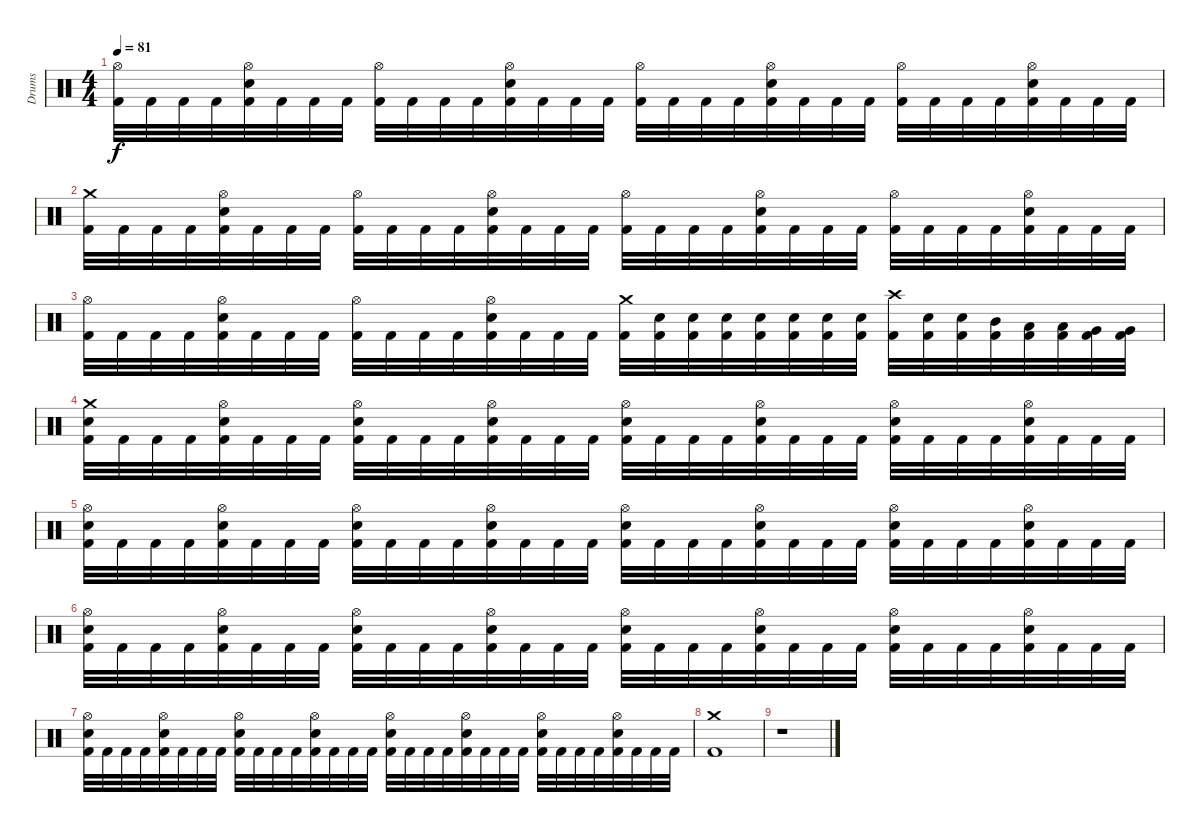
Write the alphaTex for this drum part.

\track ("Drums" "Drums") {instrument percussion}
\staff {score}
\articulation defaults
\ts (4 4)
\tempo 81
\clef neutral
\ks c
("Hi-Hat (open)" "Kick (hit) 2").32{dy f} "Kick (hit) 2".32 "Kick (hit) 2".32 "Kick (hit) 2".32 ("Hi-Hat (open)" "Electric Snare (hit)" "Kick (hit) 2").32 "Kick (hit) 2".32 "Kick (hit) 2".32 "Kick (hit) 2".32 ("Hi-Hat (open)" "Kick (hit) 2").32 "Kick (hit) 2".32 "Kick (hit) 2".32 "Kick (hit) 2".32 ("Hi-Hat (open)" "Electric Snare (hit)" "Kick (hit) 2").32 "Kick (hit) 2".32 "Kick (hit) 2".32 "Kick (hit) 2".32 ("Hi-Hat (open)" "Kick (hit) 2").32 "Kick (hit) 2".32 "Kick (hit) 2".32 "Kick (hit) 2".32 ("Hi-Hat (open)" "Electric Snare (hit)" "Kick (hit) 2").32 "Kick (hit) 2".32 "Kick (hit) 2".32 "Kick (hit) 2".32 ("Hi-Hat (open)" "Kick (hit) 2").32 "Kick (hit) 2".32 "Kick (hit) 2".32 "Kick (hit) 2".32 ("Hi-Hat (open)" "Electric Snare (hit)" "Kick (hit) 2").32 "Kick (hit) 2".32 "Kick (hit) 2".32 "Kick (hit) 2".32 |
("Crash medium (hit)" "Kick (hit) 2").32 "Kick (hit) 2".32 "Kick (hit) 2".32 "Kick (hit) 2".32 ("Hi-Hat (open)" "Electric Snare (hit)" "Kick (hit) 2").32 "Kick (hit) 2".32 "Kick (hit) 2".32 "Kick (hit) 2".32 ("Hi-Hat (open)" "Kick (hit) 2").32 "Kick (hit) 2".32 "Kick (hit) 2".32 "Kick (hit) 2".32 ("Hi-Hat (open)" "Electric Snare (hit)" "Kick (hit) 2").32 "Kick (hit) 2".32 "Kick (hit) 2".32 "Kick (hit) 2".32 ("Hi-Hat (open)" "Kick (hit) 2").32 "Kick (hit) 2".32 "Kick (hit) 2".32 "Kick (hit) 2".32 ("Hi-Hat (open)" "Electric Snare (hit)" "Kick (hit) 2").32 "Kick (hit) 2".32 "Kick (hit) 2".32 "Kick (hit) 2".32 ("Hi-Hat (open)" "Kick (hit) 2").32 "Kick (hit) 2".32 "Kick (hit) 2".32 "Kick (hit) 2".32 ("Hi-Hat (open)" "Electric Snare (hit)" "Kick (hit) 2").32 "Kick (hit) 2".32 "Kick (hit) 2".32 "Kick (hit) 2".32 |
("Hi-Hat (open)" "Kick (hit) 2").32 "Kick (hit) 2".32 "Kick (hit) 2".32 "Kick (hit) 2".32 ("Hi-Hat (open)" "Electric Snare (hit)" "Kick (hit) 2").32 "Kick (hit) 2".32 "Kick (hit) 2".32 "Kick (hit) 2".32 ("Hi-Hat (open)" "Kick (hit) 2").32 "Kick (hit) 2".32 "Kick (hit) 2".32 "Kick (hit) 2".32 ("Hi-Hat (open)" "Electric Snare (hit)" "Kick (hit) 2").32 "Kick (hit) 2".32 "Kick (hit) 2".32 "Kick (hit) 2".32 ("Crash medium (hit)" "Kick (hit) 2").32 ("Electric Snare (hit)" "Kick (hit) 2").32 ("Electric Snare (hit)" "Kick (hit) 2").32 ("Electric Snare (hit)" "Kick (hit) 2").32 ("Electric Snare (hit)" "Kick (hit) 2").32 ("Electric Snare (hit)" "Kick (hit) 2").32 ("Electric Snare (hit)" "Kick (hit) 2").32 ("Electric Snare (hit)" "Kick (hit) 2").32 ("Crash high (hit)" "Kick (hit) 2").32 ("Electric Snare (hit)" "Kick (hit) 2").32 ("Electric Snare (hit)" "Kick (hit) 2").32 ("Mid Tom (hit)" "Kick (hit) 2").32 ("Low Tom (hit)" "Kick (hit) 2").32 ("Low Tom (hit)" "Kick (hit) 2").32 ("Very Low Tom (hit)" "Kick (hit) 2").32 ("Very Low Tom (hit)" "Kick (hit) 2").32 |
("Crash medium (hit)" "Electric Snare (hit)" "Kick (hit) 2").32 "Kick (hit) 2".32 "Kick (hit) 2".32 "Kick (hit) 2".32 ("Hi-Hat (open)" "Electric Snare (hit)" "Kick (hit) 2").32 "Kick (hit) 2".32 "Kick (hit) 2".32 "Kick (hit) 2".32 ("Hi-Hat (open)" "Electric Snare (hit)" "Kick (hit) 2").32 "Kick (hit) 2".32 "Kick (hit) 2".32 "Kick (hit) 2".32 ("Hi-Hat (open)" "Electric Snare (hit)" "Kick (hit) 2").32 "Kick (hit) 2".32 "Kick (hit) 2".32 "Kick (hit) 2".32 ("Hi-Hat (open)" "Electric Snare (hit)" "Kick (hit) 2").32 "Kick (hit) 2".32 "Kick (hit) 2".32 "Kick (hit) 2".32 ("Hi-Hat (open)" "Electric Snare (hit)" "Kick (hit) 2").32 "Kick (hit) 2".32 "Kick (hit) 2".32 "Kick (hit) 2".32 ("Hi-Hat (open)" "Electric Snare (hit)" "Kick (hit) 2").32 "Kick (hit) 2".32 "Kick (hit) 2".32 "Kick (hit) 2".32 ("Hi-Hat (open)" "Electric Snare (hit)" "Kick (hit) 2").32 "Kick (hit) 2".32 "Kick (hit) 2".32 "Kick (hit) 2".32 |
("Hi-Hat (open)" "Electric Snare (hit)" "Kick (hit) 2").32 "Kick (hit) 2".32 "Kick (hit) 2".32 "Kick (hit) 2".32 ("Hi-Hat (open)" "Electric Snare (hit)" "Kick (hit) 2").32 "Kick (hit) 2".32 "Kick (hit) 2".32 "Kick (hit) 2".32 ("Hi-Hat (open)" "Electric Snare (hit)" "Kick (hit) 2").32 "Kick (hit) 2".32 "Kick (hit) 2".32 "Kick (hit) 2".32 ("Hi-Hat (open)" "Electric Snare (hit)" "Kick (hit) 2").32 "Kick (hit) 2".32 "Kick (hit) 2".32 "Kick (hit) 2".32 ("Hi-Hat (open)" "Electric Snare (hit)" "Kick (hit) 2").32 "Kick (hit) 2".32 "Kick (hit) 2".32 "Kick (hit) 2".32 ("Hi-Hat (open)" "Electric Snare (hit)" "Kick (hit) 2").32 "Kick (hit) 2".32 "Kick (hit) 2".32 "Kick (hit) 2".32 ("Hi-Hat (open)" "Electric Snare (hit)" "Kick (hit) 2").32 "Kick (hit) 2".32 "Kick (hit) 2".32 "Kick (hit) 2".32 ("Hi-Hat (open)" "Electric Snare (hit)" "Kick (hit) 2").32 "Kick (hit) 2".32 "Kick (hit) 2".32 "Kick (hit) 2".32 |
("Hi-Hat (open)" "Electric Snare (hit)" "Kick (hit) 2").32 "Kick (hit) 2".32 "Kick (hit) 2".32 "Kick (hit) 2".32 ("Hi-Hat (open)" "Electric Snare (hit)" "Kick (hit) 2").32 "Kick (hit) 2".32 "Kick (hit) 2".32 "Kick (hit) 2".32 ("Hi-Hat (open)" "Electric Snare (hit)" "Kick (hit) 2").32 "Kick (hit) 2".32 "Kick (hit) 2".32 "Kick (hit) 2".32 ("Hi-Hat (open)" "Electric Snare (hit)" "Kick (hit) 2").32 "Kick (hit) 2".32 "Kick (hit) 2".32 "Kick (hit) 2".32 ("Hi-Hat (open)" "Electric Snare (hit)" "Kick (hit) 2").32 "Kick (hit) 2".32 "Kick (hit) 2".32 "Kick (hit) 2".32 ("Hi-Hat (open)" "Electric Snare (hit)" "Kick (hit) 2").32 "Kick (hit) 2".32 "Kick (hit) 2".32 "Kick (hit) 2".32 ("Hi-Hat (open)" "Electric Snare (hit)" "Kick (hit) 2").32 "Kick (hit) 2".32 "Kick (hit) 2".32 "Kick (hit) 2".32 ("Hi-Hat (open)" "Electric Snare (hit)" "Kick (hit) 2").32 "Kick (hit) 2".32 "Kick (hit) 2".32 "Kick (hit) 2".32 |
("Hi-Hat (open)" "Electric Snare (hit)" "Kick (hit) 2").32 "Kick (hit) 2".32 "Kick (hit) 2".32 "Kick (hit) 2".32 ("Hi-Hat (open)" "Electric Snare (hit)" "Kick (hit) 2").32 "Kick (hit) 2".32 "Kick (hit) 2".32 "Kick (hit) 2".32 ("Hi-Hat (open)" "Electric Snare (hit)" "Kick (hit) 2").32 "Kick (hit) 2".32 "Kick (hit) 2".32 "Kick (hit) 2".32 ("Hi-Hat (open)" "Electric Snare (hit)" "Kick (hit) 2").32 "Kick (hit) 2".32 "Kick (hit) 2".32 "Kick (hit) 2".32 ("Hi-Hat (open)" "Electric Snare (hit)" "Kick (hit) 2").32 "Kick (hit) 2".32 "Kick (hit) 2".32 "Kick (hit) 2".32 ("Hi-Hat (open)" "Electric Snare (hit)" "Kick (hit) 2").32 "Kick (hit) 2".32 "Kick (hit) 2".32 "Kick (hit) 2".32 ("Hi-Hat (open)" "Electric Snare (hit)" "Kick (hit) 2").32 "Kick (hit) 2".32 "Kick (hit) 2".32 "Kick (hit) 2".32 ("Hi-Hat (open)" "Electric Snare (hit)" "Kick (hit) 2").32 "Kick (hit) 2".32 "Kick (hit) 2".32 "Kick (hit) 2".32 |
("Crash medium (hit)" "Kick (hit) 2").1 |
r.1
